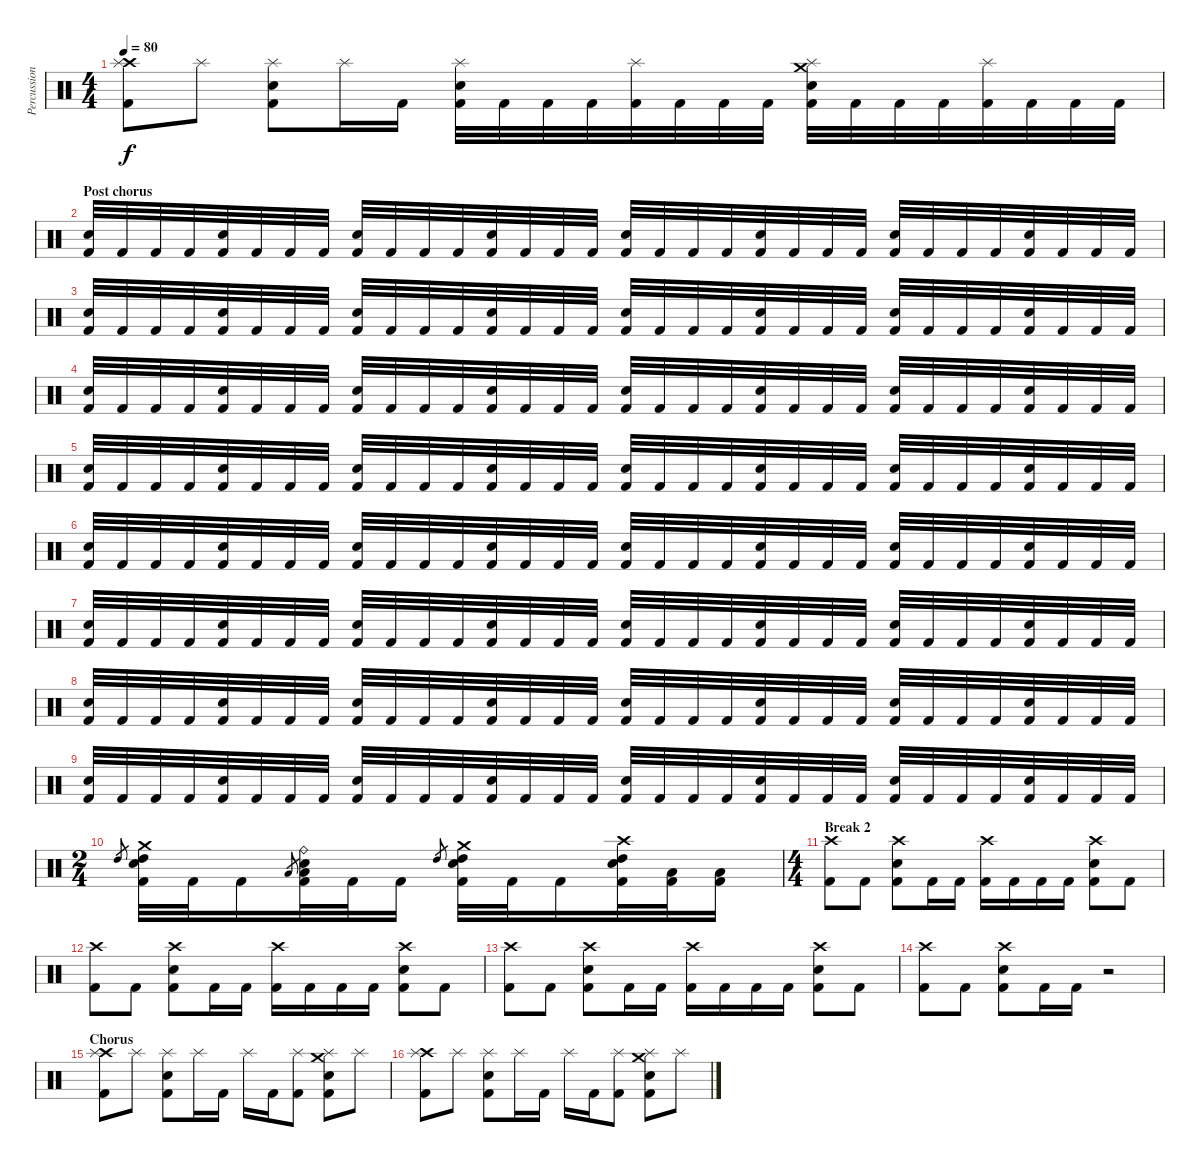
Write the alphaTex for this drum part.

\track ("Percussion" "Percussion") {instrument percussion}
\staff {score}
\articulation defaults
\ts (4 4)
\tempo 80
\clef neutral
\ks c
("Crash high (hit)" "Splash (hit)" "Kick (hit) 2").8{dy f} "Splash (hit)".8 ("Splash (hit)" "Electric Snare (hit)" "Kick (hit) 2").8 "Splash (hit)".16 "Kick (hit) 2".16 ("Splash (hit)" "Electric Snare (hit)" "Kick (hit) 2").32 "Kick (hit) 2".32 "Kick (hit) 2".32 "Kick (hit) 2".32 ("Splash (hit)" "Kick (hit) 2").32 "Kick (hit) 2".32 "Kick (hit) 2".32 "Kick (hit) 2".32 ("Crash medium (hit)" "Splash (hit)" "Electric Snare (hit)" "Kick (hit) 2").32 "Kick (hit) 2".32 "Kick (hit) 2".32 "Kick (hit) 2".32 ("Splash (hit)" "Kick (hit) 2").32 "Kick (hit) 2".32 "Kick (hit) 2".32 "Kick (hit) 2".32 |
\section ("" "Post chorus")
("Electric Snare (hit)" "Kick (hit) 2").32 "Kick (hit) 2".32 "Kick (hit) 2".32 "Kick (hit) 2".32 ("Electric Snare (hit)" "Kick (hit) 2").32 "Kick (hit) 2".32 "Kick (hit) 2".32 "Kick (hit) 2".32 ("Electric Snare (hit)" "Kick (hit) 2").32 "Kick (hit) 2".32 "Kick (hit) 2".32 "Kick (hit) 2".32 ("Electric Snare (hit)" "Kick (hit) 2").32 "Kick (hit) 2".32 "Kick (hit) 2".32 "Kick (hit) 2".32 ("Electric Snare (hit)" "Kick (hit) 2").32 "Kick (hit) 2".32 "Kick (hit) 2".32 "Kick (hit) 2".32 ("Electric Snare (hit)" "Kick (hit) 2").32 "Kick (hit) 2".32 "Kick (hit) 2".32 "Kick (hit) 2".32 ("Electric Snare (hit)" "Kick (hit) 2").32 "Kick (hit) 2".32 "Kick (hit) 2".32 "Kick (hit) 2".32 ("Electric Snare (hit)" "Kick (hit) 2").32 "Kick (hit) 2".32 "Kick (hit) 2".32 "Kick (hit) 2".32 |
("Electric Snare (hit)" "Kick (hit) 2").32 "Kick (hit) 2".32 "Kick (hit) 2".32 "Kick (hit) 2".32 ("Electric Snare (hit)" "Kick (hit) 2").32 "Kick (hit) 2".32 "Kick (hit) 2".32 "Kick (hit) 2".32 ("Electric Snare (hit)" "Kick (hit) 2").32 "Kick (hit) 2".32 "Kick (hit) 2".32 "Kick (hit) 2".32 ("Electric Snare (hit)" "Kick (hit) 2").32 "Kick (hit) 2".32 "Kick (hit) 2".32 "Kick (hit) 2".32 ("Electric Snare (hit)" "Kick (hit) 2").32 "Kick (hit) 2".32 "Kick (hit) 2".32 "Kick (hit) 2".32 ("Electric Snare (hit)" "Kick (hit) 2").32 "Kick (hit) 2".32 "Kick (hit) 2".32 "Kick (hit) 2".32 ("Electric Snare (hit)" "Kick (hit) 2").32 "Kick (hit) 2".32 "Kick (hit) 2".32 "Kick (hit) 2".32 ("Electric Snare (hit)" "Kick (hit) 2").32 "Kick (hit) 2".32 "Kick (hit) 2".32 "Kick (hit) 2".32 |
("Electric Snare (hit)" "Kick (hit) 2").32 "Kick (hit) 2".32 "Kick (hit) 2".32 "Kick (hit) 2".32 ("Electric Snare (hit)" "Kick (hit) 2").32 "Kick (hit) 2".32 "Kick (hit) 2".32 "Kick (hit) 2".32 ("Electric Snare (hit)" "Kick (hit) 2").32 "Kick (hit) 2".32 "Kick (hit) 2".32 "Kick (hit) 2".32 ("Electric Snare (hit)" "Kick (hit) 2").32 "Kick (hit) 2".32 "Kick (hit) 2".32 "Kick (hit) 2".32 ("Electric Snare (hit)" "Kick (hit) 2").32 "Kick (hit) 2".32 "Kick (hit) 2".32 "Kick (hit) 2".32 ("Electric Snare (hit)" "Kick (hit) 2").32 "Kick (hit) 2".32 "Kick (hit) 2".32 "Kick (hit) 2".32 ("Electric Snare (hit)" "Kick (hit) 2").32 "Kick (hit) 2".32 "Kick (hit) 2".32 "Kick (hit) 2".32 ("Electric Snare (hit)" "Kick (hit) 2").32 "Kick (hit) 2".32 "Kick (hit) 2".32 "Kick (hit) 2".32 |
("Electric Snare (hit)" "Kick (hit) 2").32 "Kick (hit) 2".32 "Kick (hit) 2".32 "Kick (hit) 2".32 ("Electric Snare (hit)" "Kick (hit) 2").32 "Kick (hit) 2".32 "Kick (hit) 2".32 "Kick (hit) 2".32 ("Electric Snare (hit)" "Kick (hit) 2").32 "Kick (hit) 2".32 "Kick (hit) 2".32 "Kick (hit) 2".32 ("Electric Snare (hit)" "Kick (hit) 2").32 "Kick (hit) 2".32 "Kick (hit) 2".32 "Kick (hit) 2".32 ("Electric Snare (hit)" "Kick (hit) 2").32 "Kick (hit) 2".32 "Kick (hit) 2".32 "Kick (hit) 2".32 ("Electric Snare (hit)" "Kick (hit) 2").32 "Kick (hit) 2".32 "Kick (hit) 2".32 "Kick (hit) 2".32 ("Electric Snare (hit)" "Kick (hit) 2").32 "Kick (hit) 2".32 "Kick (hit) 2".32 "Kick (hit) 2".32 ("Electric Snare (hit)" "Kick (hit) 2").32 "Kick (hit) 2".32 "Kick (hit) 2".32 "Kick (hit) 2".32 |
("Electric Snare (hit)" "Kick (hit) 2").32 "Kick (hit) 2".32 "Kick (hit) 2".32 "Kick (hit) 2".32 ("Electric Snare (hit)" "Kick (hit) 2").32 "Kick (hit) 2".32 "Kick (hit) 2".32 "Kick (hit) 2".32 ("Electric Snare (hit)" "Kick (hit) 2").32 "Kick (hit) 2".32 "Kick (hit) 2".32 "Kick (hit) 2".32 ("Electric Snare (hit)" "Kick (hit) 2").32 "Kick (hit) 2".32 "Kick (hit) 2".32 "Kick (hit) 2".32 ("Electric Snare (hit)" "Kick (hit) 2").32 "Kick (hit) 2".32 "Kick (hit) 2".32 "Kick (hit) 2".32 ("Electric Snare (hit)" "Kick (hit) 2").32 "Kick (hit) 2".32 "Kick (hit) 2".32 "Kick (hit) 2".32 ("Electric Snare (hit)" "Kick (hit) 2").32 "Kick (hit) 2".32 "Kick (hit) 2".32 "Kick (hit) 2".32 ("Electric Snare (hit)" "Kick (hit) 2").32 "Kick (hit) 2".32 "Kick (hit) 2".32 "Kick (hit) 2".32 |
("Electric Snare (hit)" "Kick (hit) 2").32 "Kick (hit) 2".32 "Kick (hit) 2".32 "Kick (hit) 2".32 ("Electric Snare (hit)" "Kick (hit) 2").32 "Kick (hit) 2".32 "Kick (hit) 2".32 "Kick (hit) 2".32 ("Electric Snare (hit)" "Kick (hit) 2").32 "Kick (hit) 2".32 "Kick (hit) 2".32 "Kick (hit) 2".32 ("Electric Snare (hit)" "Kick (hit) 2").32 "Kick (hit) 2".32 "Kick (hit) 2".32 "Kick (hit) 2".32 ("Electric Snare (hit)" "Kick (hit) 2").32 "Kick (hit) 2".32 "Kick (hit) 2".32 "Kick (hit) 2".32 ("Electric Snare (hit)" "Kick (hit) 2").32 "Kick (hit) 2".32 "Kick (hit) 2".32 "Kick (hit) 2".32 ("Electric Snare (hit)" "Kick (hit) 2").32 "Kick (hit) 2".32 "Kick (hit) 2".32 "Kick (hit) 2".32 ("Electric Snare (hit)" "Kick (hit) 2").32 "Kick (hit) 2".32 "Kick (hit) 2".32 "Kick (hit) 2".32 |
("Electric Snare (hit)" "Kick (hit) 2").32 "Kick (hit) 2".32 "Kick (hit) 2".32 "Kick (hit) 2".32 ("Electric Snare (hit)" "Kick (hit) 2").32 "Kick (hit) 2".32 "Kick (hit) 2".32 "Kick (hit) 2".32 ("Electric Snare (hit)" "Kick (hit) 2").32 "Kick (hit) 2".32 "Kick (hit) 2".32 "Kick (hit) 2".32 ("Electric Snare (hit)" "Kick (hit) 2").32 "Kick (hit) 2".32 "Kick (hit) 2".32 "Kick (hit) 2".32 ("Electric Snare (hit)" "Kick (hit) 2").32 "Kick (hit) 2".32 "Kick (hit) 2".32 "Kick (hit) 2".32 ("Electric Snare (hit)" "Kick (hit) 2").32 "Kick (hit) 2".32 "Kick (hit) 2".32 "Kick (hit) 2".32 ("Electric Snare (hit)" "Kick (hit) 2").32 "Kick (hit) 2".32 "Kick (hit) 2".32 "Kick (hit) 2".32 ("Electric Snare (hit)" "Kick (hit) 2").32 "Kick (hit) 2".32 "Kick (hit) 2".32 "Kick (hit) 2".32 |
("Electric Snare (hit)" "Kick (hit) 2").32 "Kick (hit) 2".32 "Kick (hit) 2".32 "Kick (hit) 2".32 ("Electric Snare (hit)" "Kick (hit) 2").32 "Kick (hit) 2".32 "Kick (hit) 2".32 "Kick (hit) 2".32 ("Electric Snare (hit)" "Kick (hit) 2").32 "Kick (hit) 2".32 "Kick (hit) 2".32 "Kick (hit) 2".32 ("Electric Snare (hit)" "Kick (hit) 2").32 "Kick (hit) 2".32 "Kick (hit) 2".32 "Kick (hit) 2".32 ("Electric Snare (hit)" "Kick (hit) 2").32 "Kick (hit) 2".32 "Kick (hit) 2".32 "Kick (hit) 2".32 ("Electric Snare (hit)" "Kick (hit) 2").32 "Kick (hit) 2".32 "Kick (hit) 2".32 "Kick (hit) 2".32 ("Electric Snare (hit)" "Kick (hit) 2").32 "Kick (hit) 2".32 "Kick (hit) 2".32 "Kick (hit) 2".32 ("Electric Snare (hit)" "Kick (hit) 2").32 "Kick (hit) 2".32 "Kick (hit) 2".32 "Kick (hit) 2".32 |
\ts (2 4)
"High Tom (hit)".8{gr} ("Crash medium (hit)" "High Tom (hit)" "Electric Snare (hit)" "Kick (hit) 2").32 "Kick (hit) 2".32 "Kick (hit) 2".16 "Low Tom (hit)".8{gr} ("Ride (bell)" "Low Tom (hit)" "Electric Snare (hit)" "Kick (hit) 2").32 "Kick (hit) 2".32 "Kick (hit) 2".16 "High Tom (hit)".8{gr} ("Crash medium (hit)" "High Tom (hit)" "Electric Snare (hit)" "Kick (hit) 2").32 "Kick (hit) 2".32 "Kick (hit) 2".16 ("Crash high (hit)" "High Tom (hit)" "Electric Snare (hit)" "Kick (hit) 2").32 ("Low Tom (hit)" "Kick (hit) 2").32 ("Low Tom (hit)" "Kick (hit) 2").16 |
\ts (4 4)
\section ("" "Break 2")
("Crash high (hit)" "Kick (hit) 2").8 "Kick (hit) 2".8 ("Crash high (hit)" "Electric Snare (hit)" "Kick (hit) 2").8 "Kick (hit) 2".16 "Kick (hit) 2".16 ("Crash high (hit)" "Kick (hit) 2").16 "Kick (hit) 2".16 "Kick (hit) 2".16 "Kick (hit) 2".16 ("Crash high (hit)" "Electric Snare (hit)" "Kick (hit) 2").8 "Kick (hit) 2".8 |
("Crash high (hit)" "Kick (hit) 2").8 "Kick (hit) 2".8 ("Crash high (hit)" "Electric Snare (hit)" "Kick (hit) 2").8 "Kick (hit) 2".16 "Kick (hit) 2".16 ("Crash high (hit)" "Kick (hit) 2").16 "Kick (hit) 2".16 "Kick (hit) 2".16 "Kick (hit) 2".16 ("Crash high (hit)" "Electric Snare (hit)" "Kick (hit) 2").8 "Kick (hit) 2".8 |
("Crash high (hit)" "Kick (hit) 2").8 "Kick (hit) 2".8 ("Crash high (hit)" "Electric Snare (hit)" "Kick (hit) 2").8 "Kick (hit) 2".16 "Kick (hit) 2".16 ("Crash high (hit)" "Kick (hit) 2").16 "Kick (hit) 2".16 "Kick (hit) 2".16 "Kick (hit) 2".16 ("Crash high (hit)" "Electric Snare (hit)" "Kick (hit) 2").8 "Kick (hit) 2".8 |
("Crash high (hit)" "Kick (hit) 2").8 "Kick (hit) 2".8 ("Crash high (hit)" "Electric Snare (hit)" "Kick (hit) 2").8 "Kick (hit) 2".16 "Kick (hit) 2".16 r.2 |
\section ("" "Chorus")
("Crash high (hit)" "Splash (hit)" "Kick (hit) 2").8 "Splash (hit)".8 ("Splash (hit)" "Electric Snare (hit)" "Kick (hit) 2").8 "Splash (hit)".16 "Kick (hit) 2".16 "Splash (hit)".16 "Kick (hit) 2".16 ("Splash (hit)" "Kick (hit) 2").8 ("Crash medium (hit)" "Splash (hit)" "Electric Snare (hit)" "Kick (hit) 2").8 "Splash (hit)".8 |
("Crash high (hit)" "Splash (hit)" "Kick (hit) 2").8 "Splash (hit)".8 ("Splash (hit)" "Electric Snare (hit)" "Kick (hit) 2").8 "Splash (hit)".16 "Kick (hit) 2".16 "Splash (hit)".16 "Kick (hit) 2".16 ("Splash (hit)" "Kick (hit) 2").8 ("Crash medium (hit)" "Splash (hit)" "Electric Snare (hit)" "Kick (hit) 2").8 "Splash (hit)".8
